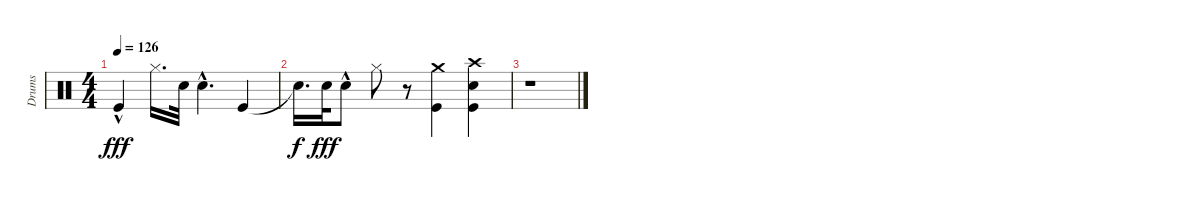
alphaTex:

\track ("Drums" "Drums") {instrument percussion}
\staff {score}
\articulation defaults
\ts (4 4)
\tempo 126
\clef neutral
\ks c "Kick (hit)"{hac}.4{dy fff} "Hi-Hat (closed)".16{d} "Snare (hit) 2".32 "Snare (hit) 2"{hac}.4{d} "Kick (hit)".4
|
"Snare (hit)"{t}.16{d dy f} "Snare (hit) 2".32{dy fff} "Snare (hit) 2"{hac}.8 "Hi-Hat (closed)".8 r.8 ("Kick (hit)" "Crash medium (hit)").4 ("Kick (hit)" "Snare (hit) 2" "Crash high (hit)").4 |
r.1
